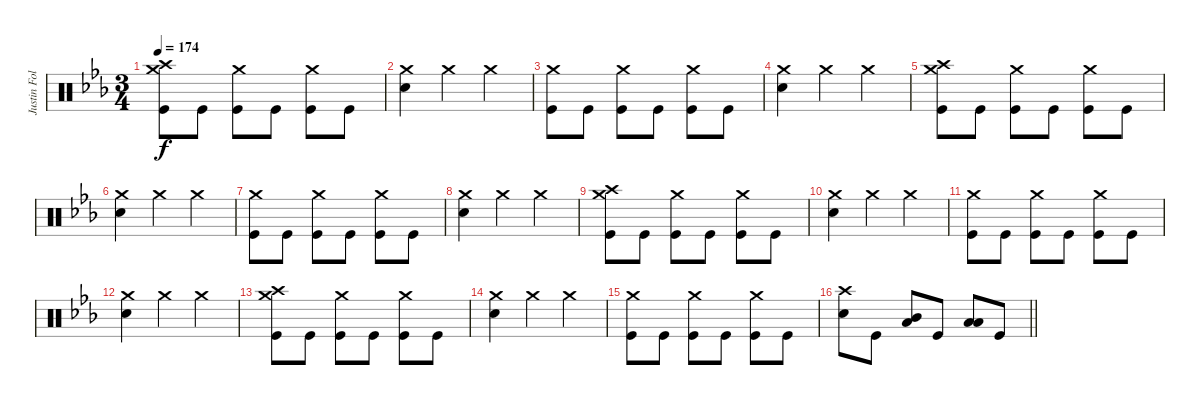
\track ("Justin Foley" "Justin Fol") {instrument percussion}
\staff {score}
\articulation defaults
\ts (3 4)
\tempo 174
\clef neutral
\ks cminor
("Crash medium (hit)" "Kick (hit)" "Crash high (hit)").8{dy f} "Kick (hit)".8 ("Crash medium (hit)" "Kick (hit)").8 "Kick (hit)".8 ("Crash medium (hit)" "Kick (hit)").8 "Kick (hit)".8 |
("Crash medium (hit)" "Snare (hit) 2").4 "Crash medium (hit)".4 "Crash medium (hit)".4 |
("Crash medium (hit)" "Kick (hit)").8 "Kick (hit)".8 ("Crash medium (hit)" "Kick (hit)").8 "Kick (hit)".8 ("Crash medium (hit)" "Kick (hit)").8 "Kick (hit)".8 |
("Crash medium (hit)" "Snare (hit) 2").4 "Crash medium (hit)".4 "Crash medium (hit)".4 |
("Kick (hit)" "Crash high (hit)" "Crash medium (hit)").8 "Kick (hit)".8 ("Crash medium (hit)" "Kick (hit)").8 "Kick (hit)".8 ("Crash medium (hit)" "Kick (hit)").8 "Kick (hit)".8 |
("Crash medium (hit)" "Snare (hit) 2").4 "Crash medium (hit)".4 "Crash medium (hit)".4 |
("Kick (hit)" "Crash medium (hit)").8 "Kick (hit)".8 ("Crash medium (hit)" "Kick (hit)").8 "Kick (hit)".8 ("Crash medium (hit)" "Kick (hit)").8 "Kick (hit)".8 |
("Crash medium (hit)" "Snare (hit) 2").4 "Crash medium (hit)".4 "Crash medium (hit)".4 |
("Crash high (hit)" "Kick (hit)" "Crash medium (hit)").8 "Kick (hit)".8 ("Crash medium (hit)" "Kick (hit)").8 "Kick (hit)".8 ("Crash medium (hit)" "Kick (hit)").8 "Kick (hit)".8 |
("Crash medium (hit)" "Snare (hit) 2").4 "Crash medium (hit)".4 "Crash medium (hit)".4 |
("Crash medium (hit)" "Kick (hit)").8 "Kick (hit)".8 ("Crash medium (hit)" "Kick (hit)").8 "Kick (hit)".8 ("Crash medium (hit)" "Kick (hit)").8 "Kick (hit)".8 |
("Crash medium (hit)" "Snare (hit) 2").4 "Crash medium (hit)".4 "Crash medium (hit)".4 |
("Kick (hit)" "Crash high (hit)" "Crash medium (hit)").8 "Kick (hit)".8 ("Crash medium (hit)" "Kick (hit)").8 "Kick (hit)".8 ("Crash medium (hit)" "Kick (hit)").8 "Kick (hit)".8 |
("Crash medium (hit)" "Snare (hit) 2").4 "Crash medium (hit)".4 "Crash medium (hit)".4 |
("Crash medium (hit)" "Kick (hit)").8 "Kick (hit)".8 ("Crash medium (hit)" "Kick (hit)").8 "Kick (hit)".8 ("Crash medium (hit)" "Kick (hit)").8 "Kick (hit)".8 |
\barLineRight lightlight
("Snare (hit) 2" "Crash high (hit)").8 "Kick (hit)".8 ("Low Floor Tom (hit)" "Mid Tom (hit)").8 "Kick (hit)".8 ("Low Floor Tom (hit)" "Low Tom (hit)").8 "Kick (hit)".8
